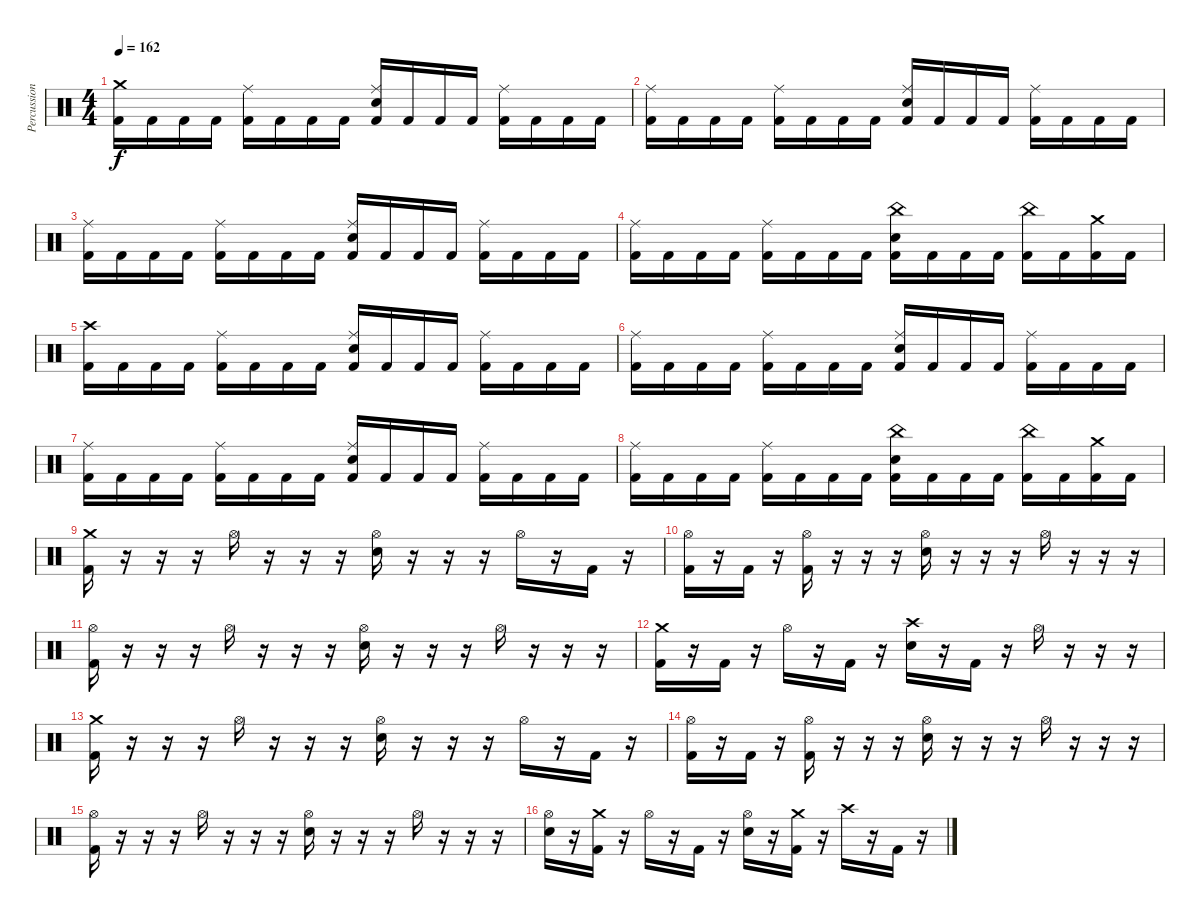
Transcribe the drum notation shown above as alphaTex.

\track ("Percussion" "Percussion") {instrument percussion}
\staff {score}
\articulation defaults
\ts (4 4)
\tempo 162
\clef neutral
\ks c
("Crash medium (hit)" "Kick (hit) 2").16{dy f} "Kick (hit) 2".16 "Kick (hit) 2".16 "Kick (hit) 2".16 ("Ride (middle)" "Kick (hit) 2").16 "Kick (hit) 2".16 "Kick (hit) 2".16 "Kick (hit) 2".16 ("Ride (middle)" "Electric Snare (hit)" "Kick (hit) 2").16 "Kick (hit) 2".16 "Kick (hit) 2".16 "Kick (hit) 2".16 ("Ride (middle)" "Kick (hit) 2").16 "Kick (hit) 2".16 "Kick (hit) 2".16 "Kick (hit) 2".16 |
("Ride (middle)" "Kick (hit) 2").16 "Kick (hit) 2".16 "Kick (hit) 2".16 "Kick (hit) 2".16 ("Ride (middle)" "Kick (hit) 2").16 "Kick (hit) 2".16 "Kick (hit) 2".16 "Kick (hit) 2".16 ("Ride (middle)" "Electric Snare (hit)" "Kick (hit) 2").16 "Kick (hit) 2".16 "Kick (hit) 2".16 "Kick (hit) 2".16 ("Ride (middle)" "Kick (hit) 2").16 "Kick (hit) 2".16 "Kick (hit) 2".16 "Kick (hit) 2".16 |
("Ride (middle)" "Kick (hit) 2").16 "Kick (hit) 2".16 "Kick (hit) 2".16 "Kick (hit) 2".16 ("Ride (middle)" "Kick (hit) 2").16 "Kick (hit) 2".16 "Kick (hit) 2".16 "Kick (hit) 2".16 ("Ride (middle)" "Electric Snare (hit)" "Kick (hit) 2").16 "Kick (hit) 2".16 "Kick (hit) 2".16 "Kick (hit) 2".16 ("Ride (middle)" "Kick (hit) 2").16 "Kick (hit) 2".16 "Kick (hit) 2".16 "Kick (hit) 2".16 |
("Ride (middle)" "Kick (hit) 2").16 "Kick (hit) 2".16 "Kick (hit) 2".16 "Kick (hit) 2".16 ("Ride (middle)" "Kick (hit) 2").16 "Kick (hit) 2".16 "Kick (hit) 2".16 "Kick (hit) 2".16 ("China (hit)" "Electric Snare (hit)" "Kick (hit) 2").16 "Kick (hit) 2".16 "Kick (hit) 2".16 "Kick (hit) 2".16 ("China (hit)" "Kick (hit) 2").16 "Kick (hit) 2".16 ("Crash medium (hit)" "Kick (hit) 2").16 "Kick (hit) 2".16 |
("Crash high (hit)" "Kick (hit) 2").16 "Kick (hit) 2".16 "Kick (hit) 2".16 "Kick (hit) 2".16 ("Ride (middle)" "Kick (hit) 2").16 "Kick (hit) 2".16 "Kick (hit) 2".16 "Kick (hit) 2".16 ("Ride (middle)" "Electric Snare (hit)" "Kick (hit) 2").16 "Kick (hit) 2".16 "Kick (hit) 2".16 "Kick (hit) 2".16 ("Ride (middle)" "Kick (hit) 2").16 "Kick (hit) 2".16 "Kick (hit) 2".16 "Kick (hit) 2".16 |
("Ride (middle)" "Kick (hit) 2").16 "Kick (hit) 2".16 "Kick (hit) 2".16 "Kick (hit) 2".16 ("Ride (middle)" "Kick (hit) 2").16 "Kick (hit) 2".16 "Kick (hit) 2".16 "Kick (hit) 2".16 ("Ride (middle)" "Electric Snare (hit)" "Kick (hit) 2").16 "Kick (hit) 2".16 "Kick (hit) 2".16 "Kick (hit) 2".16 ("Ride (middle)" "Kick (hit) 2").16 "Kick (hit) 2".16 "Kick (hit) 2".16 "Kick (hit) 2".16 |
("Ride (middle)" "Kick (hit) 2").16 "Kick (hit) 2".16 "Kick (hit) 2".16 "Kick (hit) 2".16 ("Ride (middle)" "Kick (hit) 2").16 "Kick (hit) 2".16 "Kick (hit) 2".16 "Kick (hit) 2".16 ("Ride (middle)" "Electric Snare (hit)" "Kick (hit) 2").16 "Kick (hit) 2".16 "Kick (hit) 2".16 "Kick (hit) 2".16 ("Ride (middle)" "Kick (hit) 2").16 "Kick (hit) 2".16 "Kick (hit) 2".16 "Kick (hit) 2".16 |
("Ride (middle)" "Kick (hit) 2").16 "Kick (hit) 2".16 "Kick (hit) 2".16 "Kick (hit) 2".16 ("Ride (middle)" "Kick (hit) 2").16 "Kick (hit) 2".16 "Kick (hit) 2".16 "Kick (hit) 2".16 ("China (hit)" "Electric Snare (hit)" "Kick (hit) 2").16 "Kick (hit) 2".16 "Kick (hit) 2".16 "Kick (hit) 2".16 ("China (hit)" "Kick (hit) 2").16 "Kick (hit) 2".16 ("Crash medium (hit)" "Kick (hit) 2").16 "Kick (hit) 2".16 |
("Crash medium (hit)" "Kick (hit) 2").16 r.16 r.16 r.16 "Hi-Hat (open)".16 r.16 r.16 r.16 ("Hi-Hat (open)" "Electric Snare (hit)").16 r.16 r.16 r.16 "Hi-Hat (open)".16 r.16 "Kick (hit) 2".16 r.16 |
("Hi-Hat (open)" "Kick (hit) 2").16 r.16 "Kick (hit) 2".16 r.16 ("Hi-Hat (open)" "Kick (hit) 2").16 r.16 r.16 r.16 ("Hi-Hat (open)" "Electric Snare (hit)").16 r.16 r.16 r.16 "Hi-Hat (open)".16 r.16 r.16 r.16 |
("Hi-Hat (open)" "Kick (hit) 2").16 r.16 r.16 r.16 "Hi-Hat (open)".16 r.16 r.16 r.16 ("Hi-Hat (open)" "Electric Snare (hit)").16 r.16 r.16 r.16 "Hi-Hat (open)".16 r.16 r.16 r.16 |
("Crash medium (hit)" "Kick (hit) 2").16 r.16 "Kick (hit) 2".16 r.16 "Hi-Hat (open)".16 r.16 "Kick (hit) 2".16 r.16 ("Crash high (hit)" "Electric Snare (hit)").16 r.16 "Kick (hit) 2".16 r.16 "Hi-Hat (open)".16 r.16 r.16 r.16 |
("Crash medium (hit)" "Kick (hit) 2").16 r.16 r.16 r.16 "Hi-Hat (open)".16 r.16 r.16 r.16 ("Hi-Hat (open)" "Electric Snare (hit)").16 r.16 r.16 r.16 "Hi-Hat (open)".16 r.16 "Kick (hit) 2".16 r.16 |
("Hi-Hat (open)" "Kick (hit) 2").16 r.16 "Kick (hit) 2".16 r.16 ("Hi-Hat (open)" "Kick (hit) 2").16 r.16 r.16 r.16 ("Hi-Hat (open)" "Electric Snare (hit)").16 r.16 r.16 r.16 "Hi-Hat (open)".16 r.16 r.16 r.16 |
("Hi-Hat (open)" "Kick (hit) 2").16 r.16 r.16 r.16 "Hi-Hat (open)".16 r.16 r.16 r.16 ("Hi-Hat (open)" "Electric Snare (hit)").16 r.16 r.16 r.16 "Hi-Hat (open)".16 r.16 r.16 r.16 |
("Hi-Hat (open)" "Electric Snare (hit)").16 r.16 ("Crash medium (hit)" "Kick (hit) 2").16 r.16 "Hi-Hat (open)".16 r.16 "Kick (hit) 2".16 r.16 ("Hi-Hat (open)" "Electric Snare (hit)").16 r.16 ("Crash medium (hit)" "Kick (hit) 2").16 r.16 "Crash high (hit)".16 r.16 "Kick (hit) 2".16 r.16
